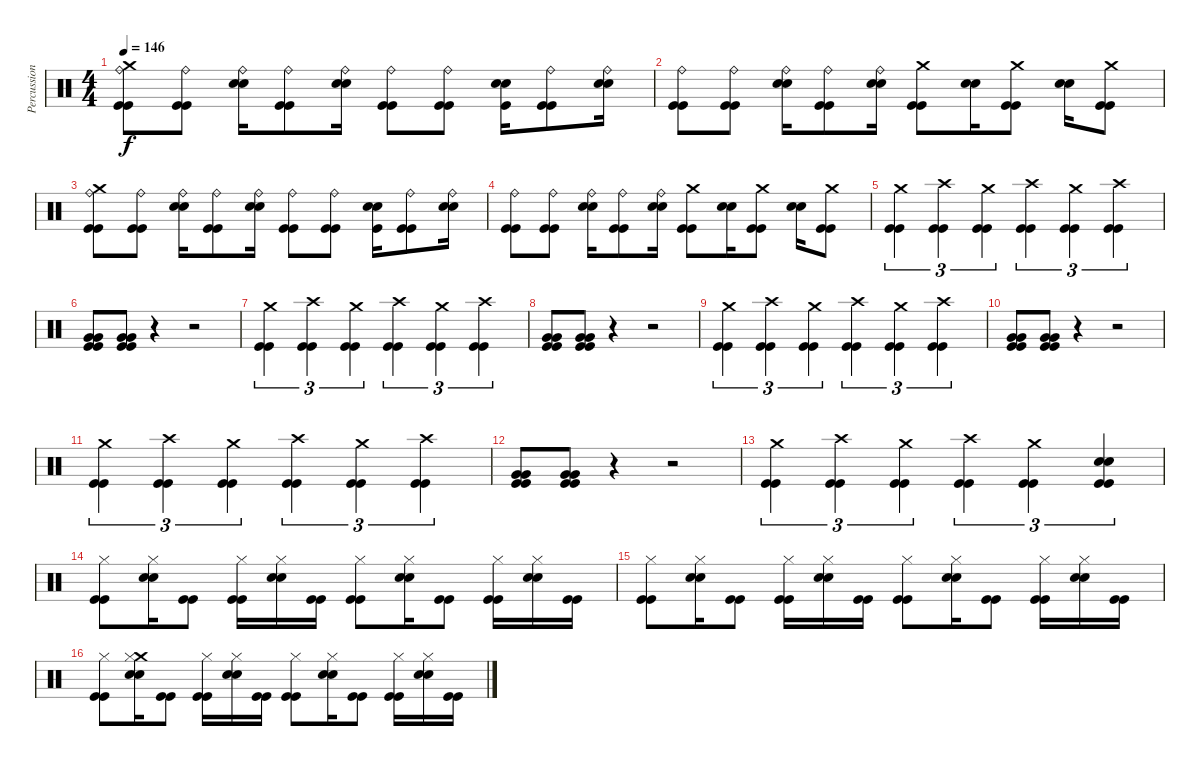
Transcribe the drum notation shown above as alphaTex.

\track ("Percussion" "Percussion") {instrument percussion}
\staff {score}
\articulation defaults
\ts (4 4)
\tempo 146
\clef neutral
\ks c
("Crash medium (hit)" "Ride (bell)" "Kick (hit)" "Kick (hit)").8{dy f} ("Ride (bell)" "Kick (hit)" "Kick (hit)").8 ("Snare (hit) 2" "Snare (hit) 2" "Ride (bell)").16 ("Ride (bell)" "Kick (hit)" "Kick (hit)").8 ("Snare (hit) 2" "Snare (hit) 2" "Ride (bell)").16 ("Ride (bell)" "Kick (hit)" "Kick (hit)").8 ("Ride (bell)" "Kick (hit)" "Kick (hit)").8 ("Snare (hit) 2" "Snare (hit) 2" "Kick (hit)").16 ("Ride (bell)" "Kick (hit)" "Kick (hit)").8 ("Snare (hit) 2" "Snare (hit) 2" "Ride (bell)").16 |
("Ride (bell)" "Kick (hit)" "Kick (hit)").8 ("Ride (bell)" "Kick (hit)" "Kick (hit)").8 ("Snare (hit) 2" "Snare (hit) 2" "Ride (bell)").16 ("Ride (bell)" "Kick (hit)" "Kick (hit)").8 ("Snare (hit) 2" "Snare (hit) 2" "Ride (bell)").16 ("Crash medium (hit)" "Kick (hit)" "Kick (hit)").8 ("Snare (hit) 2" "Snare (hit) 2").16 ("Crash medium (hit)" "Kick (hit)" "Kick (hit)").8 ("Snare (hit) 2" "Snare (hit) 2").16 ("Crash medium (hit)" "Kick (hit)" "Kick (hit)").8 |
("Crash medium (hit)" "Ride (bell)" "Kick (hit)" "Kick (hit)").8 ("Ride (bell)" "Kick (hit)" "Kick (hit)").8 ("Snare (hit) 2" "Snare (hit) 2" "Ride (bell)").16 ("Ride (bell)" "Kick (hit)" "Kick (hit)").8 ("Snare (hit) 2" "Snare (hit) 2" "Ride (bell)").16 ("Ride (bell)" "Kick (hit)" "Kick (hit)").8 ("Ride (bell)" "Kick (hit)" "Kick (hit)").8 ("Snare (hit) 2" "Snare (hit) 2" "Kick (hit)").16 ("Ride (bell)" "Kick (hit)" "Kick (hit)").8 ("Snare (hit) 2" "Snare (hit) 2" "Ride (bell)").16 |
("Ride (bell)" "Kick (hit)" "Kick (hit)").8 ("Ride (bell)" "Kick (hit)" "Kick (hit)").8 ("Snare (hit) 2" "Snare (hit) 2" "Ride (bell)").16 ("Ride (bell)" "Kick (hit)" "Kick (hit)").8 ("Snare (hit) 2" "Snare (hit) 2" "Ride (bell)").16 ("Crash medium (hit)" "Kick (hit)" "Kick (hit)").8 ("Snare (hit) 2" "Snare (hit) 2").16 ("Crash medium (hit)" "Kick (hit)" "Kick (hit)").8 ("Snare (hit) 2" "Snare (hit) 2").16 ("Crash medium (hit)" "Kick (hit)" "Kick (hit)").8 |
("Crash medium (hit)" "Kick (hit)" "Kick (hit)").4{tu (3 2)} ("Crash high (hit)" "Kick (hit)" "Kick (hit)").4{tu (3 2)} ("Crash medium (hit)" "Kick (hit)" "Kick (hit)").4{tu (3 2)} ("Crash high (hit)" "Kick (hit)" "Kick (hit)").4{tu (3 2)} ("Crash medium (hit)" "Kick (hit)" "Kick (hit)").4{tu (3 2)} ("Crash high (hit)" "Kick (hit)" "Kick (hit)").4{tu (3 2)} |
("Very Low Tom (hit)" "Very Low Tom (hit)" "Kick (hit)" "Kick (hit)").8 ("Very Low Tom (hit)" "Very Low Tom (hit)" "Kick (hit)" "Kick (hit)").8 r.4 r.2 |
("Crash medium (hit)" "Kick (hit)" "Kick (hit)").4{tu (3 2)} ("Crash high (hit)" "Kick (hit)" "Kick (hit)").4{tu (3 2)} ("Crash medium (hit)" "Kick (hit)" "Kick (hit)").4{tu (3 2)} ("Crash high (hit)" "Kick (hit)" "Kick (hit)").4{tu (3 2)} ("Crash medium (hit)" "Kick (hit)" "Kick (hit)").4{tu (3 2)} ("Crash high (hit)" "Kick (hit)" "Kick (hit)").4{tu (3 2)} |
("Very Low Tom (hit)" "Very Low Tom (hit)" "Kick (hit)" "Kick (hit)").8 ("Very Low Tom (hit)" "Very Low Tom (hit)" "Kick (hit)" "Kick (hit)").8 r.4 r.2 |
("Crash medium (hit)" "Kick (hit)" "Kick (hit)").4{tu (3 2)} ("Crash high (hit)" "Kick (hit)" "Kick (hit)").4{tu (3 2)} ("Crash medium (hit)" "Kick (hit)" "Kick (hit)").4{tu (3 2)} ("Crash high (hit)" "Kick (hit)" "Kick (hit)").4{tu (3 2)} ("Crash medium (hit)" "Kick (hit)" "Kick (hit)").4{tu (3 2)} ("Crash high (hit)" "Kick (hit)" "Kick (hit)").4{tu (3 2)} |
("Very Low Tom (hit)" "Very Low Tom (hit)" "Kick (hit)" "Kick (hit)").8 ("Very Low Tom (hit)" "Very Low Tom (hit)" "Kick (hit)" "Kick (hit)").8 r.4 r.2 |
("Crash medium (hit)" "Kick (hit)" "Kick (hit)").4{tu (3 2)} ("Crash high (hit)" "Kick (hit)" "Kick (hit)").4{tu (3 2)} ("Crash medium (hit)" "Kick (hit)" "Kick (hit)").4{tu (3 2)} ("Crash high (hit)" "Kick (hit)" "Kick (hit)").4{tu (3 2)} ("Crash medium (hit)" "Kick (hit)" "Kick (hit)").4{tu (3 2)} ("Crash high (hit)" "Kick (hit)" "Kick (hit)").4{tu (3 2)} |
("Very Low Tom (hit)" "Very Low Tom (hit)" "Kick (hit)" "Kick (hit)").8 ("Very Low Tom (hit)" "Very Low Tom (hit)" "Kick (hit)" "Kick (hit)").8 r.4 r.2 |
("Crash medium (hit)" "Kick (hit)" "Kick (hit)").4{tu (3 2)} ("Crash high (hit)" "Kick (hit)" "Kick (hit)").4{tu (3 2)} ("Crash medium (hit)" "Kick (hit)" "Kick (hit)").4{tu (3 2)} ("Crash high (hit)" "Kick (hit)" "Kick (hit)").4{tu (3 2)} ("Crash medium (hit)" "Kick (hit)" "Kick (hit)").4{tu (3 2)} ("Snare (hit) 2" "Snare (hit) 2" "Kick (hit)" "Kick (hit)").4{tu (3 2)} |
("Hi-Hat (closed)" "Kick (hit)" "Kick (hit)").8 ("Snare (hit) 2" "Snare (hit) 2" "Hi-Hat (closed)").16 ("Kick (hit)" "Kick (hit)").8 ("Hi-Hat (closed)" "Kick (hit)" "Kick (hit)").16 ("Snare (hit) 2" "Snare (hit) 2" "Hi-Hat (closed)").16 ("Kick (hit)" "Kick (hit)").16 ("Hi-Hat (closed)" "Kick (hit)" "Kick (hit)").8 ("Snare (hit) 2" "Snare (hit) 2" "Hi-Hat (closed)").16 ("Kick (hit)" "Kick (hit)").8 ("Hi-Hat (closed)" "Kick (hit)" "Kick (hit)").16 ("Snare (hit) 2" "Snare (hit) 2" "Hi-Hat (closed)").16 ("Kick (hit)" "Kick (hit)").16 |
("Hi-Hat (closed)" "Kick (hit)" "Kick (hit)").8 ("Snare (hit) 2" "Snare (hit) 2" "Hi-Hat (closed)").16 ("Kick (hit)" "Kick (hit)").8 ("Hi-Hat (closed)" "Kick (hit)" "Kick (hit)").16 ("Snare (hit) 2" "Snare (hit) 2" "Hi-Hat (closed)").16 ("Kick (hit)" "Kick (hit)").16 ("Hi-Hat (closed)" "Kick (hit)" "Kick (hit)").8 ("Snare (hit) 2" "Snare (hit) 2" "Hi-Hat (closed)").16 ("Kick (hit)" "Kick (hit)").8 ("Hi-Hat (closed)" "Kick (hit)" "Kick (hit)").16 ("Snare (hit) 2" "Snare (hit) 2" "Hi-Hat (closed)").16 ("Kick (hit)" "Kick (hit)").16 |
("Hi-Hat (closed)" "Kick (hit)" "Kick (hit)").8 ("Crash medium (hit)" "Snare (hit) 2" "Snare (hit) 2" "Hi-Hat (closed)").16 ("Kick (hit)" "Kick (hit)").8 ("Hi-Hat (closed)" "Kick (hit)" "Kick (hit)").16 ("Snare (hit) 2" "Snare (hit) 2" "Hi-Hat (closed)").16 ("Kick (hit)" "Kick (hit)").16 ("Hi-Hat (closed)" "Kick (hit)" "Kick (hit)").8 ("Snare (hit) 2" "Snare (hit) 2" "Hi-Hat (closed)").16 ("Kick (hit)" "Kick (hit)").8 ("Hi-Hat (closed)" "Kick (hit)" "Kick (hit)").16 ("Snare (hit) 2" "Snare (hit) 2" "Hi-Hat (closed)").16 ("Kick (hit)" "Kick (hit)").16
